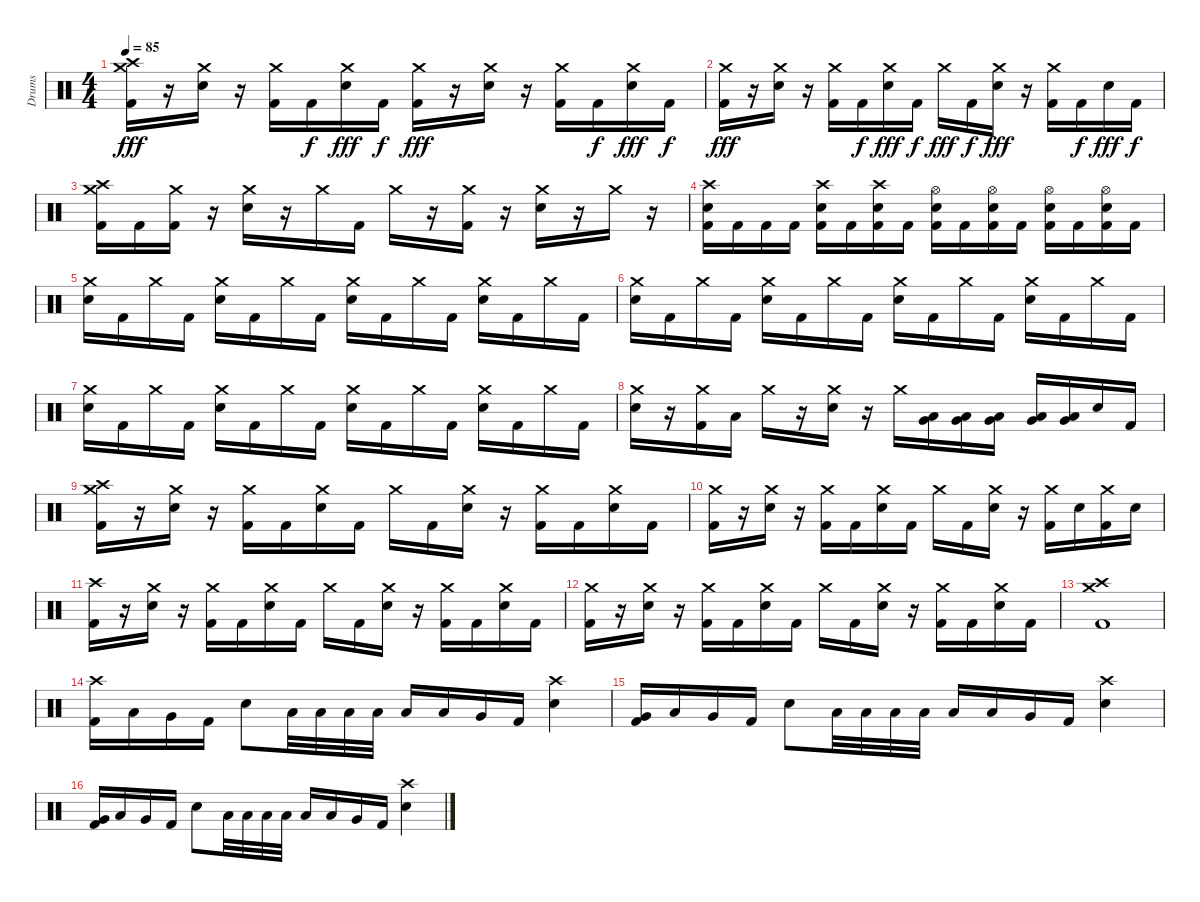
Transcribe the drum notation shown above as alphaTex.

\track ("Drums" "Drums") {instrument percussion}
\staff {score}
\articulation defaults
\ts (4 4)
\tempo 85
\clef neutral
\ks c
("Crash medium (hit)" "Crash high (hit)" "Kick (hit) 2").16{dy fff} r.16 ("Crash medium (hit)" "Electric Snare (hit)").16 r.16 ("Crash medium (hit)" "Kick (hit) 2").16 "Kick (hit) 2".16{dy f} ("Crash medium (hit)" "Electric Snare (hit)").16{dy fff} "Kick (hit) 2".16{dy f} ("Crash medium (hit)" "Kick (hit) 2").16{dy fff} r.16 ("Crash medium (hit)" "Electric Snare (hit)").16 r.16 ("Crash medium (hit)" "Kick (hit) 2").16 "Kick (hit) 2".16{dy f} ("Crash medium (hit)" "Electric Snare (hit)").16{dy fff} "Kick (hit) 2".16{dy f} |
("Crash medium (hit)" "Kick (hit) 2").16{dy fff} r.16 ("Crash medium (hit)" "Electric Snare (hit)").16 r.16 ("Crash medium (hit)" "Kick (hit) 2").16 "Kick (hit) 2".16{dy f} ("Crash medium (hit)" "Electric Snare (hit)").16{dy fff} "Kick (hit) 2".16{dy f} "Crash medium (hit)".16{dy fff} "Kick (hit) 2".16{dy f} ("Crash medium (hit)" "Electric Snare (hit)").16{dy fff} r.16 ("Crash medium (hit)" "Kick (hit) 2").16 "Kick (hit) 2".16{dy f} "Electric Snare (hit)".16{dy fff} "Kick (hit) 2".16{dy f} |
("Crash medium (hit)" "Crash high (hit)" "Kick (hit) 2").16 "Kick (hit) 2".16 ("Crash medium (hit)" "Kick (hit) 2").16 r.16 ("Crash medium (hit)" "Electric Snare (hit)").16 r.16 "Crash medium (hit)".16 "Kick (hit) 2".16 "Crash medium (hit)".16 r.16 ("Crash medium (hit)" "Kick (hit) 2").16 r.16 ("Crash medium (hit)" "Electric Snare (hit)").16 r.16 "Crash medium (hit)".16 r.16 |
("Crash high (hit)" "Electric Snare (hit)" "Kick (hit) 2").16 "Kick (hit) 2".16 "Kick (hit) 2".16 "Kick (hit) 2".16 ("Crash high (hit)" "Electric Snare (hit)" "Kick (hit) 2").16 "Kick (hit) 2".16 ("Crash high (hit)" "Electric Snare (hit)" "Kick (hit) 2").16 "Kick (hit) 2".16 ("Hi-Hat (open)" "Electric Snare (hit)" "Kick (hit) 2").16 "Kick (hit) 2".16 ("Hi-Hat (open)" "Electric Snare (hit)" "Kick (hit) 2").16 "Kick (hit) 2".16 ("Hi-Hat (open)" "Electric Snare (hit)" "Kick (hit) 2").16 "Kick (hit) 2".16 ("Hi-Hat (open)" "Electric Snare (hit)" "Kick (hit) 2").16 "Kick (hit) 2".16 |
("Crash medium (hit)" "Electric Snare (hit)").16 "Kick (hit) 2".16 "Crash medium (hit)".16 "Kick (hit) 2".16 ("Crash medium (hit)" "Electric Snare (hit)").16 "Kick (hit) 2".16 "Crash medium (hit)".16 "Kick (hit) 2".16 ("Crash medium (hit)" "Electric Snare (hit)").16 "Kick (hit) 2".16 "Crash medium (hit)".16 "Kick (hit) 2".16 ("Crash medium (hit)" "Electric Snare (hit)").16 "Kick (hit) 2".16 "Crash medium (hit)".16 "Kick (hit) 2".16 |
("Crash medium (hit)" "Electric Snare (hit)").16 "Kick (hit) 2".16 "Crash medium (hit)".16 "Kick (hit) 2".16 ("Crash medium (hit)" "Electric Snare (hit)").16 "Kick (hit) 2".16 "Crash medium (hit)".16 "Kick (hit) 2".16 ("Crash medium (hit)" "Electric Snare (hit)").16 "Kick (hit) 2".16 "Crash medium (hit)".16 "Kick (hit) 2".16 ("Crash medium (hit)" "Electric Snare (hit)").16 "Kick (hit) 2".16 "Crash medium (hit)".16 "Kick (hit) 2".16 |
("Crash medium (hit)" "Electric Snare (hit)").16 "Kick (hit) 2".16 "Crash medium (hit)".16 "Kick (hit) 2".16 ("Crash medium (hit)" "Electric Snare (hit)").16 "Kick (hit) 2".16 "Crash medium (hit)".16 "Kick (hit) 2".16 ("Crash medium (hit)" "Electric Snare (hit)").16 "Kick (hit) 2".16 "Crash medium (hit)".16 "Kick (hit) 2".16 ("Crash medium (hit)" "Electric Snare (hit)").16 "Kick (hit) 2".16 "Crash medium (hit)".16 "Kick (hit) 2".16 |
("Crash medium (hit)" "Electric Snare (hit)").16 r.16 ("Crash medium (hit)" "Kick (hit) 2").16 "Low Tom (hit)".16 "Crash medium (hit)".16 r.16 ("Crash medium (hit)" "Electric Snare (hit)").16 r.16 "Crash medium (hit)".16 ("Low Tom (hit)" "Very Low Tom (hit)").16 ("Low Tom (hit)" "Very Low Tom (hit)").16 ("Low Tom (hit)" "Very Low Tom (hit)").16 ("Low Tom (hit)" "Very Low Tom (hit)").16 ("Low Tom (hit)" "Very Low Tom (hit)").16 "Electric Snare (hit)".16 "Kick (hit) 2".16 |
("Crash medium (hit)" "Crash high (hit)" "Kick (hit) 2").16 r.16 ("Crash medium (hit)" "Electric Snare (hit)").16 r.16 ("Crash medium (hit)" "Kick (hit) 2").16 "Kick (hit) 2".16 ("Crash medium (hit)" "Electric Snare (hit)").16 "Kick (hit) 2".16 "Crash medium (hit)".16 "Kick (hit) 2".16 ("Crash medium (hit)" "Electric Snare (hit)").16 r.16 ("Crash medium (hit)" "Kick (hit) 2").16 "Kick (hit) 2".16 ("Crash medium (hit)" "Electric Snare (hit)").16 "Kick (hit) 2".16 |
("Crash medium (hit)" "Kick (hit) 2").16 r.16 ("Crash medium (hit)" "Electric Snare (hit)").16 r.16 ("Crash medium (hit)" "Kick (hit) 2").16 "Kick (hit) 2".16 ("Crash medium (hit)" "Electric Snare (hit)").16 "Kick (hit) 2".16 "Crash medium (hit)".16 "Kick (hit) 2".16 ("Crash medium (hit)" "Electric Snare (hit)").16 r.16 ("Crash medium (hit)" "Kick (hit) 2").16 "Electric Snare (hit)".16 ("Crash medium (hit)" "Kick (hit) 2").16 "Electric Snare (hit)".16 |
("Crash high (hit)" "Kick (hit) 2").16 r.16 ("Crash medium (hit)" "Electric Snare (hit)").16 r.16 ("Crash medium (hit)" "Kick (hit) 2").16 "Kick (hit) 2".16 ("Crash medium (hit)" "Electric Snare (hit)").16 "Kick (hit) 2".16 "Crash medium (hit)".16 "Kick (hit) 2".16 ("Crash medium (hit)" "Electric Snare (hit)").16 r.16 ("Crash medium (hit)" "Kick (hit) 2").16 "Kick (hit) 2".16 ("Crash medium (hit)" "Electric Snare (hit)").16 "Kick (hit) 2".16 |
("Crash medium (hit)" "Kick (hit) 2").16 r.16 ("Crash medium (hit)" "Electric Snare (hit)").16 r.16 ("Crash medium (hit)" "Kick (hit) 2").16 "Kick (hit) 2".16 ("Crash medium (hit)" "Electric Snare (hit)").16 "Kick (hit) 2".16 "Crash medium (hit)".16 "Kick (hit) 2".16 ("Crash medium (hit)" "Electric Snare (hit)").16 r.16 ("Crash medium (hit)" "Kick (hit) 2").16 "Kick (hit) 2".16 ("Crash medium (hit)" "Electric Snare (hit)").16 "Kick (hit) 2".16 |
("Crash medium (hit)" "Crash high (hit)" "Kick (hit) 2").1 |
("Crash high (hit)" "Kick (hit) 2").16 "Low Tom (hit)".16 "Very Low Tom (hit)".16 "Kick (hit) 2".16 "Electric Snare (hit)".8 "Low Tom (hit)".32 "Low Tom (hit)".32 "Low Tom (hit)".32 "Low Tom (hit)".32 "Low Tom (hit)".16 "Low Tom (hit)".16 "Very Low Tom (hit)".16 "Kick (hit) 2".16 ("Crash high (hit)" "Electric Snare (hit)").4 |
("Very Low Tom (hit)" "Kick (hit) 2").16 "Low Tom (hit)".16 "Very Low Tom (hit)".16 "Kick (hit) 2".16 "Electric Snare (hit)".8 "Low Tom (hit)".32 "Low Tom (hit)".32 "Low Tom (hit)".32 "Low Tom (hit)".32 "Low Tom (hit)".16 "Low Tom (hit)".16 "Very Low Tom (hit)".16 "Kick (hit) 2".16 ("Crash high (hit)" "Electric Snare (hit)").4 |
("Very Low Tom (hit)" "Kick (hit) 2").16 "Low Tom (hit)".16 "Very Low Tom (hit)".16 "Kick (hit) 2".16 "Electric Snare (hit)".8 "Low Tom (hit)".32 "Low Tom (hit)".32 "Low Tom (hit)".32 "Low Tom (hit)".32 "Low Tom (hit)".16 "Low Tom (hit)".16 "Very Low Tom (hit)".16 "Kick (hit) 2".16 ("Crash high (hit)" "Electric Snare (hit)").4
